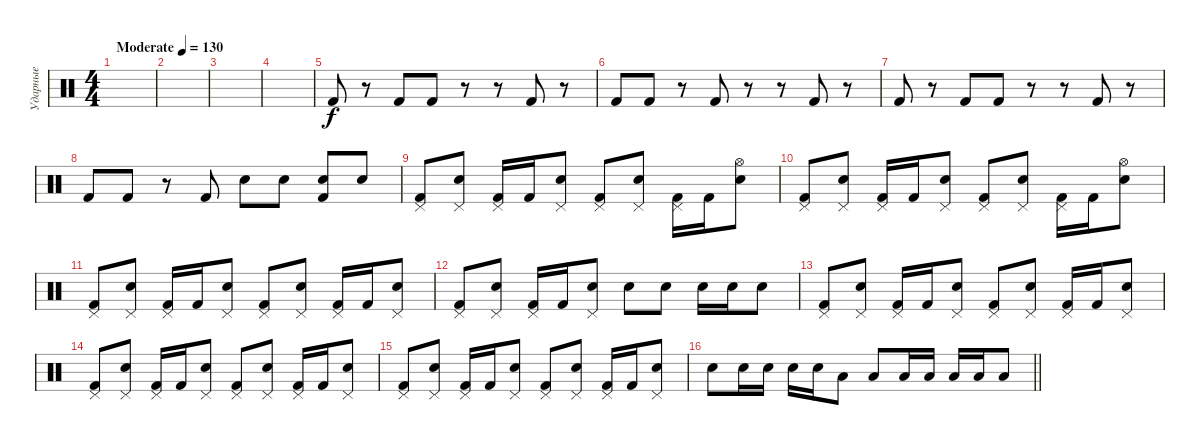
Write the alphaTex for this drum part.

\track ("Ударные" "Ударные") {instrument percussion}
\staff {score}
\articulation defaults
\ts (4 4)
\tempo (130 "Moderate")
\clef neutral
\ks c
|
|
|
|
"Kick (hit) 2".8 r.8 "Kick (hit) 2".8 "Kick (hit) 2".8 r.8 r.8 "Kick (hit) 2".8 r.8 |
"Kick (hit) 2".8 "Kick (hit) 2".8 r.8 "Kick (hit) 2".8 r.8 r.8 "Kick (hit) 2".8 r.8 |
"Kick (hit) 2".8 r.8 "Kick (hit) 2".8 "Kick (hit) 2".8 r.8 r.8 "Kick (hit) 2".8 r.8 |
"Kick (hit) 2".8 "Kick (hit) 2".8 r.8 "Kick (hit) 2".8 "Snare (hit) 2".8 "Snare (hit) 2".8 ("Kick (hit) 2" "Snare (hit) 2").8 "Snare (hit) 2".8 |
("Pedal Hi-Hat (hit)" "Kick (hit) 2").8 ("Pedal Hi-Hat (hit)" "Electric Snare (hit)").8 ("Pedal Hi-Hat (hit)" "Kick (hit) 2").16 "Kick (hit) 2".16 ("Pedal Hi-Hat (hit)" "Electric Snare (hit)").8 ("Pedal Hi-Hat (hit)" "Kick (hit) 2").8 ("Pedal Hi-Hat (hit)" "Electric Snare (hit)").8 ("Pedal Hi-Hat (hit)" "Kick (hit) 2").16 "Kick (hit) 2".16 ("Hi-Hat (open)" "Electric Snare (hit)").8 |
("Pedal Hi-Hat (hit)" "Kick (hit) 2").8 ("Pedal Hi-Hat (hit)" "Electric Snare (hit)").8 ("Pedal Hi-Hat (hit)" "Kick (hit) 2").16 "Kick (hit) 2".16 ("Pedal Hi-Hat (hit)" "Electric Snare (hit)").8 ("Pedal Hi-Hat (hit)" "Kick (hit) 2").8 ("Pedal Hi-Hat (hit)" "Electric Snare (hit)").8 ("Pedal Hi-Hat (hit)" "Kick (hit) 2").16 "Kick (hit) 2".16 ("Hi-Hat (open)" "Electric Snare (hit)").8 |
("Pedal Hi-Hat (hit)" "Kick (hit) 2").8 ("Pedal Hi-Hat (hit)" "Electric Snare (hit)").8 ("Pedal Hi-Hat (hit)" "Kick (hit) 2").16 "Kick (hit) 2".16 ("Pedal Hi-Hat (hit)" "Electric Snare (hit)").8 ("Pedal Hi-Hat (hit)" "Kick (hit) 2").8 ("Pedal Hi-Hat (hit)" "Electric Snare (hit)").8 ("Pedal Hi-Hat (hit)" "Kick (hit) 2").16 "Kick (hit) 2".16 ("Pedal Hi-Hat (hit)" "Electric Snare (hit)").8 |
("Pedal Hi-Hat (hit)" "Kick (hit) 2").8 ("Pedal Hi-Hat (hit)" "Electric Snare (hit)").8 ("Pedal Hi-Hat (hit)" "Kick (hit) 2").16 "Kick (hit) 2".16 ("Pedal Hi-Hat (hit)" "Electric Snare (hit)").8 "Electric Snare (hit)".8 "Electric Snare (hit)".8 "Electric Snare (hit)".16 "Electric Snare (hit)".16 "Electric Snare (hit)".8 |
("Pedal Hi-Hat (hit)" "Kick (hit) 2").8 ("Pedal Hi-Hat (hit)" "Electric Snare (hit)").8 ("Pedal Hi-Hat (hit)" "Kick (hit) 2").16 "Kick (hit) 2".16 ("Pedal Hi-Hat (hit)" "Electric Snare (hit)").8 ("Pedal Hi-Hat (hit)" "Kick (hit) 2").8 ("Pedal Hi-Hat (hit)" "Electric Snare (hit)").8 ("Pedal Hi-Hat (hit)" "Kick (hit) 2").16 "Kick (hit) 2".16 ("Pedal Hi-Hat (hit)" "Electric Snare (hit)").8 |
("Pedal Hi-Hat (hit)" "Kick (hit) 2").8 ("Pedal Hi-Hat (hit)" "Electric Snare (hit)").8 ("Pedal Hi-Hat (hit)" "Kick (hit) 2").16 "Kick (hit) 2".16 ("Pedal Hi-Hat (hit)" "Electric Snare (hit)").8 ("Pedal Hi-Hat (hit)" "Kick (hit) 2").8 ("Pedal Hi-Hat (hit)" "Electric Snare (hit)").8 ("Pedal Hi-Hat (hit)" "Kick (hit) 2").16 "Kick (hit) 2".16 ("Pedal Hi-Hat (hit)" "Electric Snare (hit)").8 |
("Pedal Hi-Hat (hit)" "Kick (hit) 2").8 ("Pedal Hi-Hat (hit)" "Electric Snare (hit)").8 ("Pedal Hi-Hat (hit)" "Kick (hit) 2").16 "Kick (hit) 2".16 ("Pedal Hi-Hat (hit)" "Electric Snare (hit)").8 ("Pedal Hi-Hat (hit)" "Kick (hit) 2").8 ("Pedal Hi-Hat (hit)" "Electric Snare (hit)").8 ("Pedal Hi-Hat (hit)" "Kick (hit) 2").16 "Kick (hit) 2".16 ("Pedal Hi-Hat (hit)" "Electric Snare (hit)").8 |
\barLineRight lightlight "Electric Snare (hit)".8 "Electric Snare (hit)".16 "Electric Snare (hit)".16 "Electric Snare (hit)".16 "Electric Snare (hit)".16 "Low Tom (hit)".8 "Low Tom (hit)".8 "Low Tom (hit)".16 "Low Tom (hit)".16 "Low Tom (hit)".16 "Low Tom (hit)".16 "Low Tom (hit)".8
